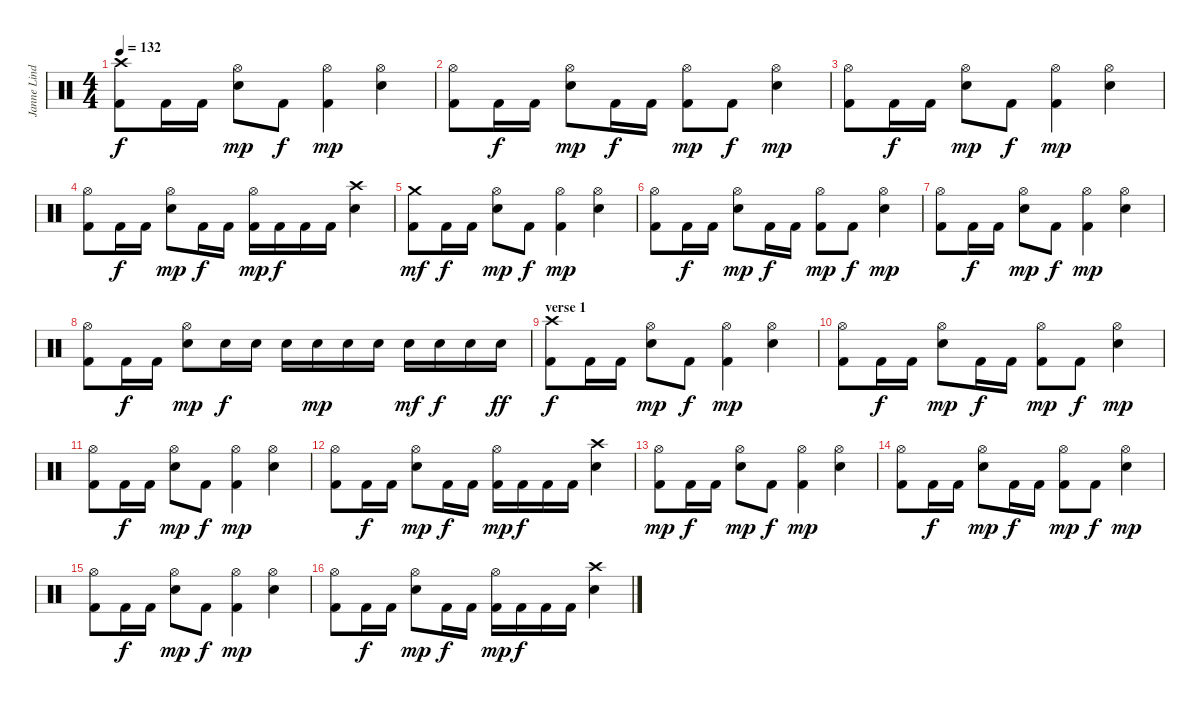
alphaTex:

\track ("Janne Lindh" "Janne Lind") {instrument percussion}
\staff {score}
\articulation defaults
\ts (4 4)
\tempo 132
\clef neutral
\ks c
("Kick (hit) 2" "Crash high (hit)").8{dy f} "Kick (hit) 2".16 "Kick (hit) 2".16 ("Hi-Hat (open)" "Snare (hit) 2").8{dy mp} "Kick (hit) 2".8{dy f} ("Kick (hit) 2" "Hi-Hat (open)").4{dy mp} ("Hi-Hat (open)" "Snare (hit) 2").4 |
("Kick (hit) 2" "Hi-Hat (open)").8 "Kick (hit) 2".16{dy f} "Kick (hit) 2".16 ("Hi-Hat (open)" "Snare (hit) 2").8{dy mp} "Kick (hit) 2".16{dy f} "Kick (hit) 2".16 ("Kick (hit) 2" "Hi-Hat (open)").8{dy mp} "Kick (hit) 2".8{dy f} ("Hi-Hat (open)" "Snare (hit) 2").4{dy mp} |
("Kick (hit) 2" "Hi-Hat (open)").8 "Kick (hit) 2".16{dy f} "Kick (hit) 2".16 ("Hi-Hat (open)" "Snare (hit) 2").8{dy mp} "Kick (hit) 2".8{dy f} ("Kick (hit) 2" "Hi-Hat (open)").4{dy mp} ("Hi-Hat (open)" "Snare (hit) 2").4 |
("Kick (hit) 2" "Hi-Hat (open)").8 "Kick (hit) 2".16{dy f} "Kick (hit) 2".16 ("Hi-Hat (open)" "Snare (hit) 2").8{dy mp} "Kick (hit) 2".16{dy f} "Kick (hit) 2".16 ("Kick (hit) 2" "Hi-Hat (open)").16{dy mp} "Kick (hit) 2".16{dy f} "Kick (hit) 2".16 "Kick (hit) 2".16 ("Crash high (hit)" "Snare (hit) 2").4 |
("Kick (hit) 2" "Crash medium (hit)").8{dy mf} "Kick (hit) 2".16{dy f} "Kick (hit) 2".16 ("Hi-Hat (open)" "Snare (hit) 2").8{dy mp} "Kick (hit) 2".8{dy f} ("Kick (hit) 2" "Hi-Hat (open)").4{dy mp} ("Hi-Hat (open)" "Snare (hit) 2").4 |
("Kick (hit) 2" "Hi-Hat (open)").8 "Kick (hit) 2".16{dy f} "Kick (hit) 2".16 ("Hi-Hat (open)" "Snare (hit) 2").8{dy mp} "Kick (hit) 2".16{dy f} "Kick (hit) 2".16 ("Kick (hit) 2" "Hi-Hat (open)").8{dy mp} "Kick (hit) 2".8{dy f} ("Hi-Hat (open)" "Snare (hit) 2").4{dy mp} |
("Kick (hit) 2" "Hi-Hat (open)").8 "Kick (hit) 2".16{dy f} "Kick (hit) 2".16 ("Hi-Hat (open)" "Snare (hit) 2").8{dy mp} "Kick (hit) 2".8{dy f} ("Kick (hit) 2" "Hi-Hat (open)").4{dy mp} ("Hi-Hat (open)" "Snare (hit) 2").4 |
("Kick (hit) 2" "Hi-Hat (open)").8 "Kick (hit) 2".16{dy f} "Kick (hit) 2".16 ("Hi-Hat (open)" "Snare (hit) 2").8{dy mp} "Snare (hit) 2".16{dy f} "Snare (hit) 2".16 "Snare (hit) 2".16 "Snare (hit) 2".16{dy mp} "Snare (hit) 2".16 "Snare (hit) 2".16 "Snare (hit) 2".16{dy mf} "Snare (hit) 2".16{dy f} "Snare (hit) 2".16 "Snare (hit) 2".16{dy ff} |
\section ("" "verse 1")
("Kick (hit) 2" "Crash high (hit)").8{dy f} "Kick (hit) 2".16 "Kick (hit) 2".16 ("Hi-Hat (open)" "Snare (hit) 2").8{dy mp} "Kick (hit) 2".8{dy f} ("Kick (hit) 2" "Hi-Hat (open)").4{dy mp} ("Hi-Hat (open)" "Snare (hit) 2").4 |
("Kick (hit) 2" "Hi-Hat (open)").8 "Kick (hit) 2".16{dy f} "Kick (hit) 2".16 ("Hi-Hat (open)" "Snare (hit) 2").8{dy mp} "Kick (hit) 2".16{dy f} "Kick (hit) 2".16 ("Kick (hit) 2" "Hi-Hat (open)").8{dy mp} "Kick (hit) 2".8{dy f} ("Hi-Hat (open)" "Snare (hit) 2").4{dy mp} |
("Kick (hit) 2" "Hi-Hat (open)").8 "Kick (hit) 2".16{dy f} "Kick (hit) 2".16 ("Hi-Hat (open)" "Snare (hit) 2").8{dy mp} "Kick (hit) 2".8{dy f} ("Kick (hit) 2" "Hi-Hat (open)").4{dy mp} ("Hi-Hat (open)" "Snare (hit) 2").4 |
("Kick (hit) 2" "Hi-Hat (open)").8 "Kick (hit) 2".16{dy f} "Kick (hit) 2".16 ("Hi-Hat (open)" "Snare (hit) 2").8{dy mp} "Kick (hit) 2".16{dy f} "Kick (hit) 2".16 ("Kick (hit) 2" "Hi-Hat (open)").16{dy mp} "Kick (hit) 2".16{dy f} "Kick (hit) 2".16 "Kick (hit) 2".16 ("Crash high (hit)" "Snare (hit) 2").4 |
("Kick (hit) 2" "Hi-Hat (open)").8{dy mp} "Kick (hit) 2".16{dy f} "Kick (hit) 2".16 ("Hi-Hat (open)" "Snare (hit) 2").8{dy mp} "Kick (hit) 2".8{dy f} ("Kick (hit) 2" "Hi-Hat (open)").4{dy mp} ("Hi-Hat (open)" "Snare (hit) 2").4 |
("Kick (hit) 2" "Hi-Hat (open)").8 "Kick (hit) 2".16{dy f} "Kick (hit) 2".16 ("Hi-Hat (open)" "Snare (hit) 2").8{dy mp} "Kick (hit) 2".16{dy f} "Kick (hit) 2".16 ("Kick (hit) 2" "Hi-Hat (open)").8{dy mp} "Kick (hit) 2".8{dy f} ("Hi-Hat (open)" "Snare (hit) 2").4{dy mp} |
("Kick (hit) 2" "Hi-Hat (open)").8 "Kick (hit) 2".16{dy f} "Kick (hit) 2".16 ("Hi-Hat (open)" "Snare (hit) 2").8{dy mp} "Kick (hit) 2".8{dy f} ("Kick (hit) 2" "Hi-Hat (open)").4{dy mp} ("Hi-Hat (open)" "Snare (hit) 2").4 |
("Kick (hit) 2" "Hi-Hat (open)").8 "Kick (hit) 2".16{dy f} "Kick (hit) 2".16 ("Hi-Hat (open)" "Snare (hit) 2").8{dy mp} "Kick (hit) 2".16{dy f} "Kick (hit) 2".16 ("Kick (hit) 2" "Hi-Hat (open)").16{dy mp} "Kick (hit) 2".16{dy f} "Kick (hit) 2".16 "Kick (hit) 2".16 ("Crash high (hit)" "Snare (hit) 2").4
